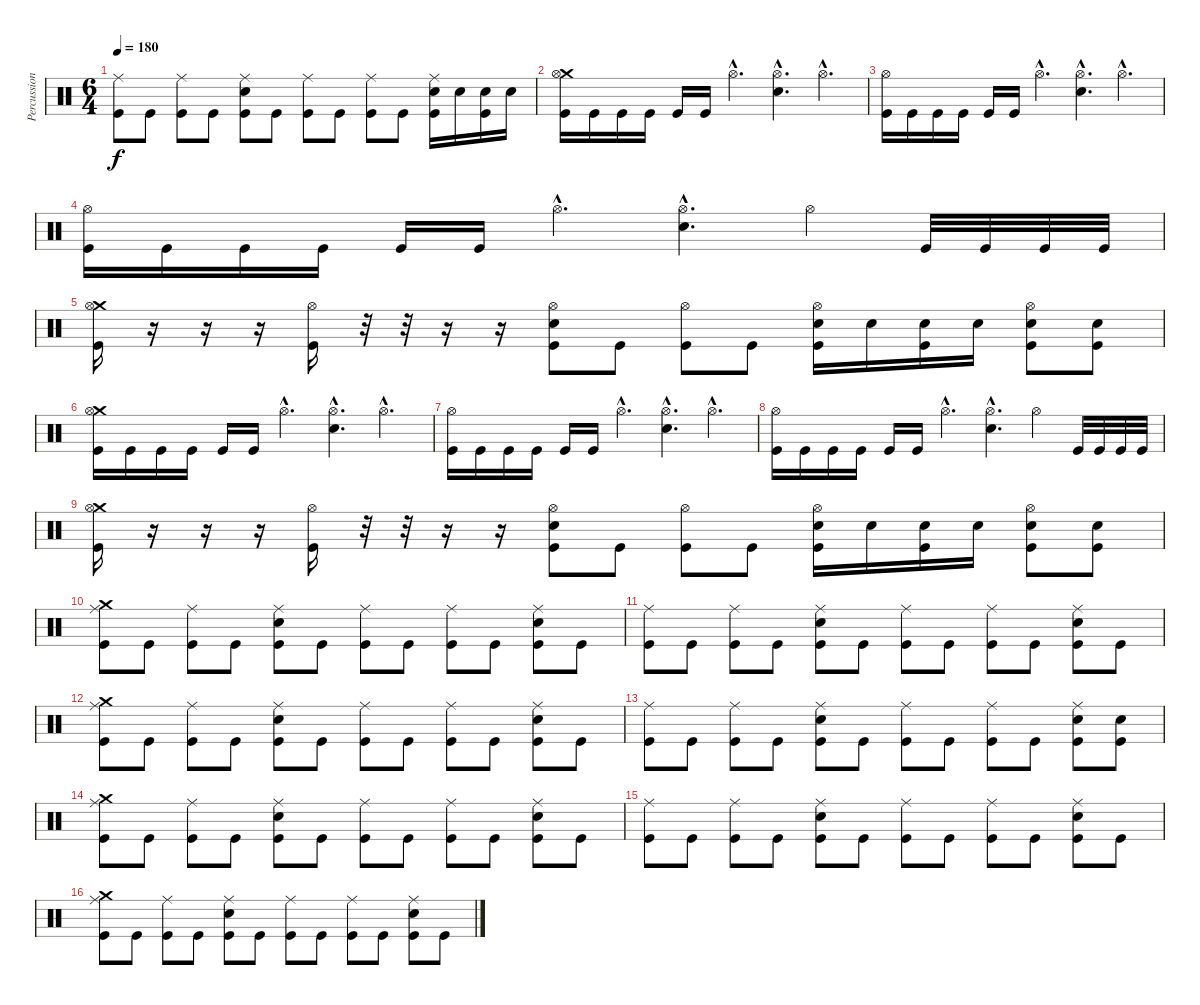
\track ("Percussion" "Percussion") {instrument percussion}
\staff {score}
\articulation defaults
\ts (6 4)
\tempo 180
\clef neutral
\ks c
("Ride (middle)" "Kick (hit)").8{dy f} "Kick (hit)".8 ("Ride (middle)" "Kick (hit)").8 "Kick (hit)".8 ("Electric Snare (hit)" "Ride (middle)" "Kick (hit)").8 "Kick (hit)".8 ("Ride (middle)" "Kick (hit)").8 "Kick (hit)".8 ("Ride (middle)" "Kick (hit)").8 "Kick (hit)".8 ("Electric Snare (hit)" "Ride (middle)" "Kick (hit)").16 "Electric Snare (hit)".16 ("Electric Snare (hit)" "Kick (hit)").16 "Electric Snare (hit)".16 |
("Crash medium (hit)" "Hi-Hat (open)" "Kick (hit)").16 "Kick (hit)".16 "Kick (hit)".16 "Kick (hit)".16 "Kick (hit)".16 "Kick (hit)".16 "Hi-Hat (open)"{hac}.4{d} ("Electric Snare (hit)"{hac} "Hi-Hat (open)"{hac}).4{d} "Hi-Hat (open)"{hac}.4{d} |
("Hi-Hat (open)" "Kick (hit)").16 "Kick (hit)".16 "Kick (hit)".16 "Kick (hit)".16 "Kick (hit)".16 "Kick (hit)".16 "Hi-Hat (open)"{hac}.4{d} ("Electric Snare (hit)"{hac} "Hi-Hat (open)"{hac}).4{d} "Hi-Hat (open)"{hac}.4{d} |
("Hi-Hat (open)" "Kick (hit)").16 "Kick (hit)".16 "Kick (hit)".16 "Kick (hit)".16 "Kick (hit)".16 "Kick (hit)".16 "Hi-Hat (open)"{hac}.4{d} ("Electric Snare (hit)"{hac} "Hi-Hat (open)"{hac}).4{d} "Hi-Hat (open)".4 "Kick (hit)".32 "Kick (hit)".32 "Kick (hit)".32 "Kick (hit)".32 |
("Crash medium (hit)" "Hi-Hat (open)" "Kick (hit)").16 r.16 r.16 r.16 ("Hi-Hat (open)" "Kick (hit)").16 r.32 r.32 r.16 r.16 ("Electric Snare (hit)" "Hi-Hat (open)" "Kick (hit)").8 "Kick (hit)".8 ("Hi-Hat (open)" "Kick (hit)").8 "Kick (hit)".8 ("Electric Snare (hit)" "Hi-Hat (open)" "Kick (hit)").16 "Electric Snare (hit)".16 ("Electric Snare (hit)" "Kick (hit)").16 "Electric Snare (hit)".16 ("Electric Snare (hit)" "Hi-Hat (open)" "Kick (hit)").8 ("Electric Snare (hit)" "Kick (hit)").8 |
("Crash medium (hit)" "Hi-Hat (open)" "Kick (hit)").16 "Kick (hit)".16 "Kick (hit)".16 "Kick (hit)".16 "Kick (hit)".16 "Kick (hit)".16 "Hi-Hat (open)"{hac}.4{d} ("Electric Snare (hit)"{hac} "Hi-Hat (open)"{hac}).4{d} "Hi-Hat (open)"{hac}.4{d} |
("Hi-Hat (open)" "Kick (hit)").16 "Kick (hit)".16 "Kick (hit)".16 "Kick (hit)".16 "Kick (hit)".16 "Kick (hit)".16 "Hi-Hat (open)"{hac}.4{d} ("Electric Snare (hit)"{hac} "Hi-Hat (open)"{hac}).4{d} "Hi-Hat (open)"{hac}.4{d} |
("Hi-Hat (open)" "Kick (hit)").16 "Kick (hit)".16 "Kick (hit)".16 "Kick (hit)".16 "Kick (hit)".16 "Kick (hit)".16 "Hi-Hat (open)"{hac}.4{d} ("Electric Snare (hit)"{hac} "Hi-Hat (open)"{hac}).4{d} "Hi-Hat (open)".4 "Kick (hit)".32 "Kick (hit)".32 "Kick (hit)".32 "Kick (hit)".32 |
("Crash medium (hit)" "Hi-Hat (open)" "Kick (hit)").16 r.16 r.16 r.16 ("Hi-Hat (open)" "Kick (hit)").16 r.32 r.32 r.16 r.16 ("Electric Snare (hit)" "Hi-Hat (open)" "Kick (hit)").8 "Kick (hit)".8 ("Hi-Hat (open)" "Kick (hit)").8 "Kick (hit)".8 ("Electric Snare (hit)" "Hi-Hat (open)" "Kick (hit)").16 "Electric Snare (hit)".16 ("Electric Snare (hit)" "Kick (hit)").16 "Electric Snare (hit)".16 ("Electric Snare (hit)" "Hi-Hat (open)" "Kick (hit)").8 ("Electric Snare (hit)" "Kick (hit)").8 |
("Crash medium (hit)" "Ride (middle)" "Kick (hit)").8 "Kick (hit)".8 ("Ride (middle)" "Kick (hit)").8 "Kick (hit)".8 ("Electric Snare (hit)" "Ride (middle)" "Kick (hit)").8 "Kick (hit)".8 ("Ride (middle)" "Kick (hit)").8 "Kick (hit)".8 ("Ride (middle)" "Kick (hit)").8 "Kick (hit)".8 ("Electric Snare (hit)" "Ride (middle)" "Kick (hit)").8 "Kick (hit)".8 |
("Ride (middle)" "Kick (hit)").8 "Kick (hit)".8 ("Ride (middle)" "Kick (hit)").8 "Kick (hit)".8 ("Electric Snare (hit)" "Ride (middle)" "Kick (hit)").8 "Kick (hit)".8 ("Ride (middle)" "Kick (hit)").8 "Kick (hit)".8 ("Ride (middle)" "Kick (hit)").8 "Kick (hit)".8 ("Electric Snare (hit)" "Ride (middle)" "Kick (hit)").8 "Kick (hit)".8 |
("Crash medium (hit)" "Ride (middle)" "Kick (hit)").8 "Kick (hit)".8 ("Ride (middle)" "Kick (hit)").8 "Kick (hit)".8 ("Electric Snare (hit)" "Ride (middle)" "Kick (hit)").8 "Kick (hit)".8 ("Ride (middle)" "Kick (hit)").8 "Kick (hit)".8 ("Ride (middle)" "Kick (hit)").8 "Kick (hit)".8 ("Electric Snare (hit)" "Ride (middle)" "Kick (hit)").8 "Kick (hit)".8 |
("Ride (middle)" "Kick (hit)").8 "Kick (hit)".8 ("Ride (middle)" "Kick (hit)").8 "Kick (hit)".8 ("Electric Snare (hit)" "Ride (middle)" "Kick (hit)").8 "Kick (hit)".8 ("Ride (middle)" "Kick (hit)").8 "Kick (hit)".8 ("Ride (middle)" "Kick (hit)").8 "Kick (hit)".8 ("Electric Snare (hit)" "Ride (middle)" "Kick (hit)").8 ("Electric Snare (hit)" "Kick (hit)").8 |
("Crash medium (hit)" "Ride (middle)" "Kick (hit)").8 "Kick (hit)".8 ("Ride (middle)" "Kick (hit)").8 "Kick (hit)".8 ("Electric Snare (hit)" "Ride (middle)" "Kick (hit)").8 "Kick (hit)".8 ("Ride (middle)" "Kick (hit)").8 "Kick (hit)".8 ("Ride (middle)" "Kick (hit)").8 "Kick (hit)".8 ("Electric Snare (hit)" "Ride (middle)" "Kick (hit)").8 "Kick (hit)".8 |
("Ride (middle)" "Kick (hit)").8 "Kick (hit)".8 ("Ride (middle)" "Kick (hit)").8 "Kick (hit)".8 ("Electric Snare (hit)" "Ride (middle)" "Kick (hit)").8 "Kick (hit)".8 ("Ride (middle)" "Kick (hit)").8 "Kick (hit)".8 ("Ride (middle)" "Kick (hit)").8 "Kick (hit)".8 ("Electric Snare (hit)" "Ride (middle)" "Kick (hit)").8 "Kick (hit)".8 |
("Crash medium (hit)" "Ride (middle)" "Kick (hit)").8 "Kick (hit)".8 ("Ride (middle)" "Kick (hit)").8 "Kick (hit)".8 ("Electric Snare (hit)" "Ride (middle)" "Kick (hit)").8 "Kick (hit)".8 ("Ride (middle)" "Kick (hit)").8 "Kick (hit)".8 ("Ride (middle)" "Kick (hit)").8 "Kick (hit)".8 ("Electric Snare (hit)" "Ride (middle)" "Kick (hit)").8 "Kick (hit)".8
